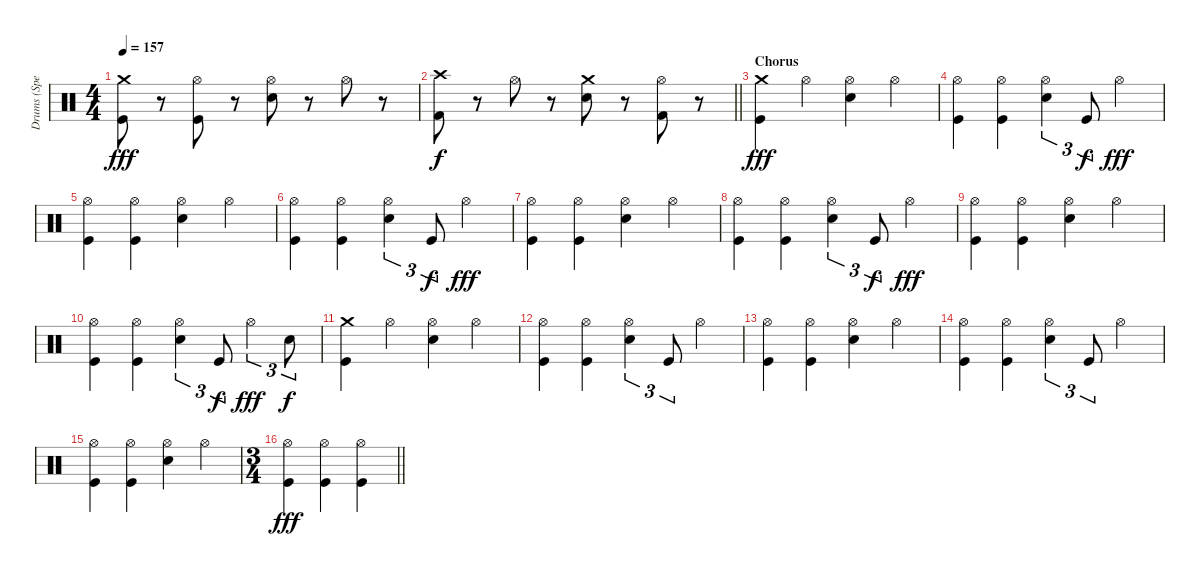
\track ("Drums (Spencer Smith)" "Drums (Spe") {instrument percussion}
\staff {score}
\articulation defaults
\ts (4 4)
\tempo 157
\clef neutral
\ks c
("Crash medium (hit)" "Kick (hit)").8{dy fff} r.8 ("Hi-Hat (open)" "Kick (hit)").8 r.8 ("Hi-Hat (open)" "Electric Snare (hit)").8 r.8 "Hi-Hat (open)".8 r.8 |
\barLineRight lightlight
("Crash high (hit)" "Kick (hit) 2").8{dy f} r.8 "Hi-Hat (open)".8 r.8 ("Crash medium (hit)" "Electric Snare (hit)").8 r.8 ("Hi-Hat (open)" "Kick (hit) 2").8 r.8 |
\section ("" "Chorus")
("Crash medium (hit)" "Kick (hit)").4{dy fff} "Hi-Hat (open)".4 ("Hi-Hat (open)" "Electric Snare (hit)").4 "Hi-Hat (open)".4 |
("Hi-Hat (open)" "Kick (hit)").4 ("Hi-Hat (open)" "Kick (hit)").4 ("Hi-Hat (open)" "Electric Snare (hit)").4{tu (3 2)} "Kick (hit)".8{tu (3 2) dy f} "Hi-Hat (open)".4{dy fff} |
("Hi-Hat (open)" "Kick (hit)").4 ("Hi-Hat (open)" "Kick (hit)").4 ("Hi-Hat (open)" "Electric Snare (hit)").4 "Hi-Hat (open)".4 |
("Hi-Hat (open)" "Kick (hit)").4 ("Hi-Hat (open)" "Kick (hit)").4 ("Hi-Hat (open)" "Electric Snare (hit)").4{tu (3 2)} "Kick (hit)".8{tu (3 2) dy f} "Hi-Hat (open)".4{dy fff} |
("Hi-Hat (open)" "Kick (hit)").4 ("Hi-Hat (open)" "Kick (hit)").4 ("Hi-Hat (open)" "Electric Snare (hit)").4 "Hi-Hat (open)".4 |
("Hi-Hat (open)" "Kick (hit)").4 ("Hi-Hat (open)" "Kick (hit)").4 ("Hi-Hat (open)" "Electric Snare (hit)").4{tu (3 2)} "Kick (hit)".8{tu (3 2) dy f} "Hi-Hat (open)".4{dy fff} |
("Hi-Hat (open)" "Kick (hit)").4 ("Hi-Hat (open)" "Kick (hit)").4 ("Hi-Hat (open)" "Electric Snare (hit)").4 "Hi-Hat (open)".4 |
("Hi-Hat (open)" "Kick (hit)").4 ("Hi-Hat (open)" "Kick (hit)").4 ("Hi-Hat (open)" "Electric Snare (hit)").4{tu (3 2)} "Kick (hit)".8{tu (3 2) dy f} "Hi-Hat (open)".4{tu (3 2) dy fff} "Electric Snare (hit)".8{tu (3 2) dy f} |
("Crash medium (hit)" "Kick (hit)").4 "Hi-Hat (open)".4 ("Hi-Hat (open)" "Electric Snare (hit)").4 "Hi-Hat (open)".4 |
("Hi-Hat (open)" "Kick (hit)").4 ("Hi-Hat (open)" "Kick (hit)").4 ("Hi-Hat (open)" "Electric Snare (hit)").4{tu (3 2)} "Kick (hit)".8{tu (3 2)} "Hi-Hat (open)".4 |
("Hi-Hat (open)" "Kick (hit)").4 ("Hi-Hat (open)" "Kick (hit)").4 ("Hi-Hat (open)" "Electric Snare (hit)").4 "Hi-Hat (open)".4 |
("Hi-Hat (open)" "Kick (hit)").4 ("Hi-Hat (open)" "Kick (hit)").4 ("Hi-Hat (open)" "Electric Snare (hit)").4{tu (3 2)} "Kick (hit)".8{tu (3 2)} "Hi-Hat (open)".4 |
("Hi-Hat (open)" "Kick (hit)").4 ("Hi-Hat (open)" "Kick (hit)").4 ("Hi-Hat (open)" "Electric Snare (hit)").4 "Hi-Hat (open)".4 |
\ts (3 4)
\barLineRight lightlight
("Hi-Hat (open)" "Kick (hit)").4{dy fff} ("Hi-Hat (open)" "Kick (hit)").4 ("Hi-Hat (open)" "Kick (hit)").4
